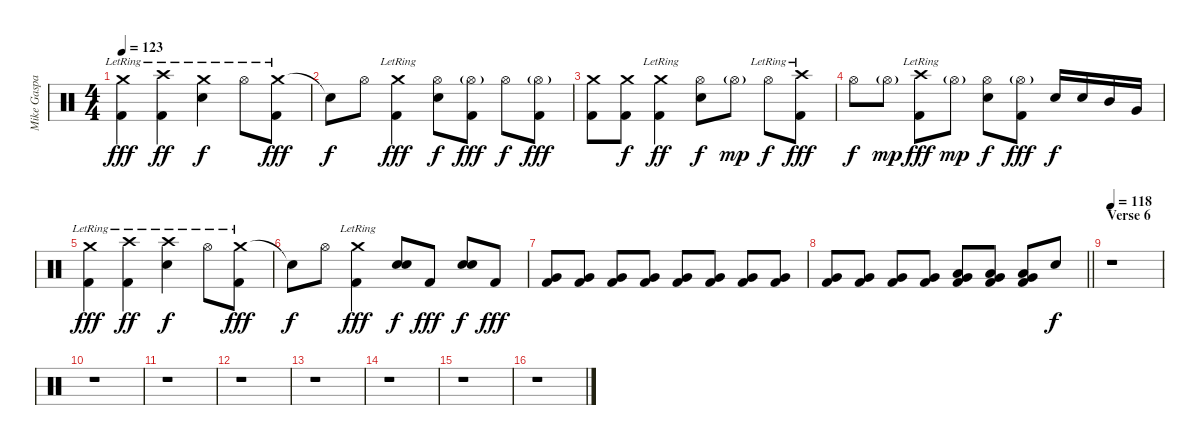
\track ("Mike Gaspar (Drums)" "Mike Gaspa") {instrument percussion}
\staff {score}
\articulation defaults
\ts (4 4)
\tempo 123
\clef neutral
\ks c
("Crash medium (hit)"{lr} "Kick (hit) 2").4{dy fff} ("Crash high (hit)"{lr} "Kick (hit) 2").4{dy ff} ("Crash medium (hit)"{lr} "Snare (hit) 2").4{dy f} "Hi-Hat (open)"{lr}.8 ("Crash medium (hit)"{lr} "Kick (hit) 2").8{dy fff} |
"Snare (hit)"{t}.8{dy f} "Hi-Hat (open)".8 ("Crash medium (hit)"{lr} "Kick (hit) 2").4{dy fff} ("Hi-Hat (open)" "Snare (hit) 2").8{dy f} ("Hi-Hat (open)"{g} "Kick (hit) 2").8{dy fff} "Hi-Hat (open)".8{dy f} ("Hi-Hat (open)"{g} "Kick (hit) 2").8{dy fff} |
("Crash medium (hit)" "Kick (hit) 2").8 ("Crash medium (hit)" "Kick (hit) 2").8{dy f} ("Crash medium (hit)"{lr} "Kick (hit) 2").4{dy ff} ("Hi-Hat (open)" "Snare (hit) 2").8{dy f} "Hi-Hat (open)"{g}.8{dy mp} "Hi-Hat (open)"{lr}.8{dy f} ("Crash high (hit)"{lr} "Kick (hit) 2").8{dy fff} |
"Hi-Hat (open)".8{dy f} "Hi-Hat (open)"{g}.8{dy mp} ("Crash high (hit)"{lr} "Kick (hit) 2").8{dy fff} "Hi-Hat (open)"{g}.8{dy mp} ("Hi-Hat (open)" "Snare (hit) 2").8{dy f} ("Hi-Hat (open)"{g} "Kick (hit) 2").8{dy fff} "Snare (hit) 2".16{dy f} "Snare (hit) 2".16 "Mid Tom (hit)".16 "Very Low Tom (hit)".16 |
("Crash medium (hit)"{lr} "Kick (hit) 2").4{dy fff} ("Crash high (hit)"{lr} "Kick (hit) 2").4{dy ff} ("Crash high (hit)"{lr} "Snare (hit) 2").4{dy f} "Hi-Hat (open)"{lr}.8 ("Crash medium (hit)"{lr} "Kick (hit) 2").8{dy fff} |
"Snare (hit)"{t}.8{dy f} "Hi-Hat (open)".8 ("Crash medium (hit)"{lr} "Kick (hit) 2").4{dy fff} ("Snare (hit) 2" "Snare (hit) 2").8{bd 60 dy f} "Kick (hit) 2".8{dy fff} ("Snare (hit) 2" "Snare (hit) 2").8{bd 60 dy f} "Kick (hit) 2".8{dy fff} |
("Very Low Tom (hit)" "Kick (hit) 2").8 ("Very Low Tom (hit)" "Kick (hit) 2").8 ("Very Low Tom (hit)" "Kick (hit) 2").8 ("Very Low Tom (hit)" "Kick (hit) 2").8 ("Very Low Tom (hit)" "Kick (hit) 2").8 ("Very Low Tom (hit)" "Kick (hit) 2").8 ("Very Low Tom (hit)" "Kick (hit) 2").8 ("Very Low Tom (hit)" "Kick (hit) 2").8 |
\barLineRight lightlight
("Very Low Tom (hit)" "Kick (hit) 2").8 ("Very Low Tom (hit)" "Kick (hit) 2").8 ("Very Low Tom (hit)" "Kick (hit) 2").8 ("Very Low Tom (hit)" "Kick (hit) 2").8 ("Low Tom (hit)" "Very Low Tom (hit)" "Kick (hit) 2").8 ("Low Tom (hit)" "Very Low Tom (hit)" "Kick (hit) 2").8 ("Low Tom (hit)" "Very Low Tom (hit)" "Kick (hit) 2").8 "Snare (hit) 2".8{dy f} |
\section ("" "Verse 6")
\tempo 118
r.1 |
r.1 |
r.1 |
r.1 |
r.1 |
r.1 |
r.1 |
r.1
